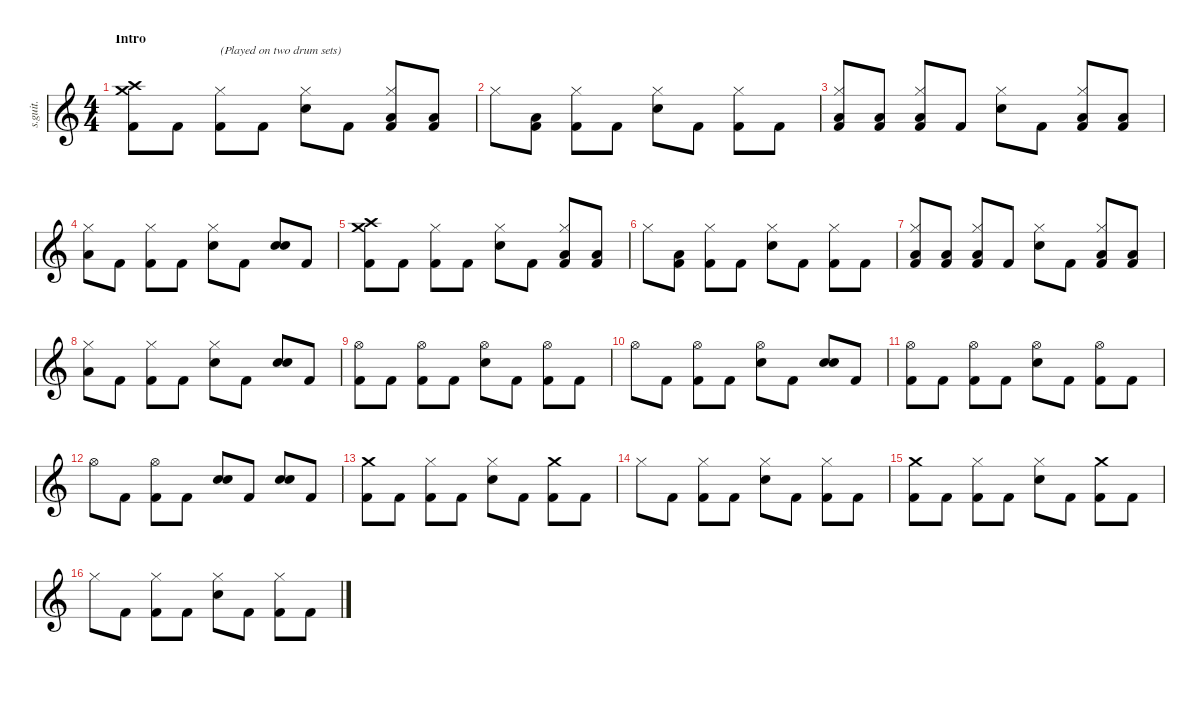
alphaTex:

\defaultSystemsLayout 4
\hideDynamics
\bracketExtendMode nobrackets
\track ("Taylor Hawkins" "s.guit.") {instrument percussion}
\staff {score}
\articulation defaults
\ts (4 4)
\beaming (8 2 2 2 2)
\section ("" "Intro")
\tempo (154 hide)
\clef g2
\ks c
("Crash high (hit)" "Crash medium (hit)" "Kick (hit) 2").8{lyrics (0 "") lyrics (1 "") lyrics (2 "") lyrics (3 "") lyrics (4 "") dy f} "Kick (hit) 2".8{lyrics (0 "") lyrics (1 "") lyrics (2 "") lyrics (3 "") lyrics (4 "")} ("Hi-Hat (closed)" "Kick (hit) 2").8{txt "(Played on two drum sets)" lyrics (0 "") lyrics (1 "") lyrics (2 "") lyrics (3 "") lyrics (4 "")} "Kick (hit) 2".8{lyrics (0 "") lyrics (1 "") lyrics (2 "") lyrics (3 "") lyrics (4 "")} ("Snare (hit) 2" "Hi-Hat (closed)").8{lyrics (0 "") lyrics (1 "") lyrics (2 "") lyrics (3 "") lyrics (4 "")} "Kick (hit) 2".8{lyrics (0 "") lyrics (1 "") lyrics (2 "") lyrics (3 "") lyrics (4 "")} ("Hi-Hat (closed)" "Low Floor Tom (hit)" "Kick (hit) 2").8{lyrics (0 "") lyrics (1 "") lyrics (2 "") lyrics (3 "") lyrics (4 "")} ("Low Floor Tom (hit)" "Kick (hit) 2").8{lyrics (0 "") lyrics (1 "") lyrics (2 "") lyrics (3 "") lyrics (4 "")} |
"Hi-Hat (closed)".8{lyrics (0 "") lyrics (1 "") lyrics (2 "") lyrics (3 "") lyrics (4 "")} ("Low Floor Tom (hit)" "Kick (hit) 2").8{lyrics (0 "") lyrics (1 "") lyrics (2 "") lyrics (3 "") lyrics (4 "")} ("Hi-Hat (closed)" "Kick (hit) 2").8{lyrics (0 "") lyrics (1 "") lyrics (2 "") lyrics (3 "") lyrics (4 "")} "Kick (hit) 2".8{lyrics (0 "") lyrics (1 "") lyrics (2 "") lyrics (3 "") lyrics (4 "")} ("Snare (hit) 2" "Hi-Hat (closed)").8{lyrics (0 "") lyrics (1 "") lyrics (2 "") lyrics (3 "") lyrics (4 "")} "Kick (hit) 2".8{lyrics (0 "") lyrics (1 "") lyrics (2 "") lyrics (3 "") lyrics (4 "")} ("Hi-Hat (closed)" "Kick (hit) 2").8{lyrics (0 "") lyrics (1 "") lyrics (2 "") lyrics (3 "") lyrics (4 "")} "Kick (hit) 2".8{lyrics (0 "") lyrics (1 "") lyrics (2 "") lyrics (3 "") lyrics (4 "")} |
("Hi-Hat (closed)" "Low Floor Tom (hit)" "Kick (hit) 2").8{lyrics (0 "") lyrics (1 "") lyrics (2 "") lyrics (3 "") lyrics (4 "")} ("Low Floor Tom (hit)" "Kick (hit) 2").8{lyrics (0 "") lyrics (1 "") lyrics (2 "") lyrics (3 "") lyrics (4 "")} ("Hi-Hat (closed)" "Low Floor Tom (hit)" "Kick (hit) 2").8{lyrics (0 "") lyrics (1 "") lyrics (2 "") lyrics (3 "") lyrics (4 "")} "Kick (hit) 2".8{lyrics (0 "") lyrics (1 "") lyrics (2 "") lyrics (3 "") lyrics (4 "")} ("Snare (hit) 2" "Hi-Hat (closed)").8{lyrics (0 "") lyrics (1 "") lyrics (2 "") lyrics (3 "") lyrics (4 "")} "Kick (hit) 2".8{lyrics (0 "") lyrics (1 "") lyrics (2 "") lyrics (3 "") lyrics (4 "")} ("Hi-Hat (closed)" "Low Floor Tom (hit)" "Kick (hit) 2").8{lyrics (0 "") lyrics (1 "") lyrics (2 "") lyrics (3 "") lyrics (4 "")} ("Low Floor Tom (hit)" "Kick (hit) 2").8{lyrics (0 "") lyrics (1 "") lyrics (2 "") lyrics (3 "") lyrics (4 "")} |
("Hi-Hat (closed)" "Low Floor Tom (hit)").8{lyrics (0 "") lyrics (1 "") lyrics (2 "") lyrics (3 "") lyrics (4 "")} "Kick (hit) 2".8{lyrics (0 "") lyrics (1 "") lyrics (2 "") lyrics (3 "") lyrics (4 "")} ("Hi-Hat (closed)" "Kick (hit) 2").8{lyrics (0 "") lyrics (1 "") lyrics (2 "") lyrics (3 "") lyrics (4 "")} "Kick (hit) 2".8{lyrics (0 "") lyrics (1 "") lyrics (2 "") lyrics (3 "") lyrics (4 "")} ("Snare (hit) 2" "Hi-Hat (closed)").8{lyrics (0 "") lyrics (1 "") lyrics (2 "") lyrics (3 "") lyrics (4 "")} "Kick (hit) 2".8{lyrics (0 "") lyrics (1 "") lyrics (2 "") lyrics (3 "") lyrics (4 "")} ("Snare (hit) 2" "Electric Snare (hit)").8{lyrics (0 "") lyrics (1 "") lyrics (2 "") lyrics (3 "") lyrics (4 "")} "Kick (hit) 2".8{lyrics (0 "") lyrics (1 "") lyrics (2 "") lyrics (3 "") lyrics (4 "")} |
("Crash high (hit)" "Crash medium (hit)" "Kick (hit) 2").8{lyrics (0 "") lyrics (1 "") lyrics (2 "") lyrics (3 "") lyrics (4 "")} "Kick (hit) 2".8{lyrics (0 "") lyrics (1 "") lyrics (2 "") lyrics (3 "") lyrics (4 "")} ("Hi-Hat (closed)" "Kick (hit) 2").8{lyrics (0 "") lyrics (1 "") lyrics (2 "") lyrics (3 "") lyrics (4 "")} "Kick (hit) 2".8{lyrics (0 "") lyrics (1 "") lyrics (2 "") lyrics (3 "") lyrics (4 "")} ("Snare (hit) 2" "Hi-Hat (closed)").8{lyrics (0 "") lyrics (1 "") lyrics (2 "") lyrics (3 "") lyrics (4 "")} "Kick (hit) 2".8{lyrics (0 "") lyrics (1 "") lyrics (2 "") lyrics (3 "") lyrics (4 "")} ("Hi-Hat (closed)" "Low Floor Tom (hit)" "Kick (hit) 2").8{lyrics (0 "") lyrics (1 "") lyrics (2 "") lyrics (3 "") lyrics (4 "")} ("Low Floor Tom (hit)" "Kick (hit) 2").8{lyrics (0 "") lyrics (1 "") lyrics (2 "") lyrics (3 "") lyrics (4 "")} |
"Hi-Hat (closed)".8{lyrics (0 "") lyrics (1 "") lyrics (2 "") lyrics (3 "") lyrics (4 "")} ("Low Floor Tom (hit)" "Kick (hit) 2").8{lyrics (0 "") lyrics (1 "") lyrics (2 "") lyrics (3 "") lyrics (4 "")} ("Hi-Hat (closed)" "Kick (hit) 2").8{lyrics (0 "") lyrics (1 "") lyrics (2 "") lyrics (3 "") lyrics (4 "")} "Kick (hit) 2".8{lyrics (0 "") lyrics (1 "") lyrics (2 "") lyrics (3 "") lyrics (4 "")} ("Snare (hit) 2" "Hi-Hat (closed)").8{lyrics (0 "") lyrics (1 "") lyrics (2 "") lyrics (3 "") lyrics (4 "")} "Kick (hit) 2".8{lyrics (0 "") lyrics (1 "") lyrics (2 "") lyrics (3 "") lyrics (4 "")} ("Hi-Hat (closed)" "Kick (hit) 2").8{lyrics (0 "") lyrics (1 "") lyrics (2 "") lyrics (3 "") lyrics (4 "")} "Kick (hit) 2".8{lyrics (0 "") lyrics (1 "") lyrics (2 "") lyrics (3 "") lyrics (4 "")} |
("Hi-Hat (closed)" "Low Floor Tom (hit)" "Kick (hit) 2").8{lyrics (0 "") lyrics (1 "") lyrics (2 "") lyrics (3 "") lyrics (4 "")} ("Low Floor Tom (hit)" "Kick (hit) 2").8{lyrics (0 "") lyrics (1 "") lyrics (2 "") lyrics (3 "") lyrics (4 "")} ("Hi-Hat (closed)" "Low Floor Tom (hit)" "Kick (hit) 2").8{lyrics (0 "") lyrics (1 "") lyrics (2 "") lyrics (3 "") lyrics (4 "")} "Kick (hit) 2".8{lyrics (0 "") lyrics (1 "") lyrics (2 "") lyrics (3 "") lyrics (4 "")} ("Snare (hit) 2" "Hi-Hat (closed)").8{lyrics (0 "") lyrics (1 "") lyrics (2 "") lyrics (3 "") lyrics (4 "")} "Kick (hit) 2".8{lyrics (0 "") lyrics (1 "") lyrics (2 "") lyrics (3 "") lyrics (4 "")} ("Hi-Hat (closed)" "Low Floor Tom (hit)" "Kick (hit) 2").8{lyrics (0 "") lyrics (1 "") lyrics (2 "") lyrics (3 "") lyrics (4 "")} ("Low Floor Tom (hit)" "Kick (hit) 2").8{lyrics (0 "") lyrics (1 "") lyrics (2 "") lyrics (3 "") lyrics (4 "")} |
("Hi-Hat (closed)" "Low Floor Tom (hit)").8{lyrics (0 "") lyrics (1 "") lyrics (2 "") lyrics (3 "") lyrics (4 "")} "Kick (hit) 2".8{lyrics (0 "") lyrics (1 "") lyrics (2 "") lyrics (3 "") lyrics (4 "")} ("Hi-Hat (closed)" "Kick (hit) 2").8{lyrics (0 "") lyrics (1 "") lyrics (2 "") lyrics (3 "") lyrics (4 "")} "Kick (hit) 2".8{lyrics (0 "") lyrics (1 "") lyrics (2 "") lyrics (3 "") lyrics (4 "")} ("Snare (hit) 2" "Hi-Hat (closed)").8{lyrics (0 "") lyrics (1 "") lyrics (2 "") lyrics (3 "") lyrics (4 "")} "Kick (hit) 2".8{lyrics (0 "") lyrics (1 "") lyrics (2 "") lyrics (3 "") lyrics (4 "")} ("Snare (hit) 2" "Electric Snare (hit)").8{lyrics (0 "") lyrics (1 "") lyrics (2 "") lyrics (3 "") lyrics (4 "")} "Kick (hit) 2".8{lyrics (0 "") lyrics (1 "") lyrics (2 "") lyrics (3 "") lyrics (4 "")} |
("Kick (hit) 2" "Hi-Hat (open)").8{lyrics (0 "") lyrics (1 "") lyrics (2 "") lyrics (3 "") lyrics (4 "")} "Kick (hit) 2".8{lyrics (0 "") lyrics (1 "") lyrics (2 "") lyrics (3 "") lyrics (4 "")} ("Kick (hit) 2" "Hi-Hat (open)").8{lyrics (0 "") lyrics (1 "") lyrics (2 "") lyrics (3 "") lyrics (4 "")} "Kick (hit) 2".8{lyrics (0 "") lyrics (1 "") lyrics (2 "") lyrics (3 "") lyrics (4 "")} ("Hi-Hat (open)" "Snare (hit) 2").8{lyrics (0 "") lyrics (1 "") lyrics (2 "") lyrics (3 "") lyrics (4 "")} "Kick (hit) 2".8{lyrics (0 "") lyrics (1 "") lyrics (2 "") lyrics (3 "") lyrics (4 "")} ("Kick (hit) 2" "Hi-Hat (open)").8{lyrics (0 "") lyrics (1 "") lyrics (2 "") lyrics (3 "") lyrics (4 "")} "Kick (hit) 2".8{lyrics (0 "") lyrics (1 "") lyrics (2 "") lyrics (3 "") lyrics (4 "")} |
"Hi-Hat (open)".8{lyrics (0 "") lyrics (1 "") lyrics (2 "") lyrics (3 "") lyrics (4 "")} "Kick (hit) 2".8{lyrics (0 "") lyrics (1 "") lyrics (2 "") lyrics (3 "") lyrics (4 "")} ("Kick (hit) 2" "Hi-Hat (open)").8{lyrics (0 "") lyrics (1 "") lyrics (2 "") lyrics (3 "") lyrics (4 "")} "Kick (hit) 2".8{lyrics (0 "") lyrics (1 "") lyrics (2 "") lyrics (3 "") lyrics (4 "")} ("Electric Snare (hit)" "Hi-Hat (open)").8{lyrics (0 "") lyrics (1 "") lyrics (2 "") lyrics (3 "") lyrics (4 "")} "Kick (hit) 2".8{lyrics (0 "") lyrics (1 "") lyrics (2 "") lyrics (3 "") lyrics (4 "")} ("Snare (hit) 2" "Electric Snare (hit)").8{lyrics (0 "") lyrics (1 "") lyrics (2 "") lyrics (3 "") lyrics (4 "")} "Kick (hit) 2".8{lyrics (0 "") lyrics (1 "") lyrics (2 "") lyrics (3 "") lyrics (4 "")} |
("Kick (hit) 2" "Hi-Hat (open)").8{lyrics (0 "") lyrics (1 "") lyrics (2 "") lyrics (3 "") lyrics (4 "")} "Kick (hit) 2".8{lyrics (0 "") lyrics (1 "") lyrics (2 "") lyrics (3 "") lyrics (4 "")} ("Kick (hit) 2" "Hi-Hat (open)").8{lyrics (0 "") lyrics (1 "") lyrics (2 "") lyrics (3 "") lyrics (4 "")} "Kick (hit) 2".8{lyrics (0 "") lyrics (1 "") lyrics (2 "") lyrics (3 "") lyrics (4 "")} ("Hi-Hat (open)" "Snare (hit) 2").8{lyrics (0 "") lyrics (1 "") lyrics (2 "") lyrics (3 "") lyrics (4 "")} "Kick (hit) 2".8{lyrics (0 "") lyrics (1 "") lyrics (2 "") lyrics (3 "") lyrics (4 "")} ("Kick (hit) 2" "Hi-Hat (open)").8{lyrics (0 "") lyrics (1 "") lyrics (2 "") lyrics (3 "") lyrics (4 "")} "Kick (hit) 2".8{lyrics (0 "") lyrics (1 "") lyrics (2 "") lyrics (3 "") lyrics (4 "")} |
"Hi-Hat (open)".8{lyrics (0 "") lyrics (1 "") lyrics (2 "") lyrics (3 "") lyrics (4 "")} "Kick (hit) 2".8{lyrics (0 "") lyrics (1 "") lyrics (2 "") lyrics (3 "") lyrics (4 "")} ("Kick (hit) 2" "Hi-Hat (open)").8{lyrics (0 "") lyrics (1 "") lyrics (2 "") lyrics (3 "") lyrics (4 "")} "Kick (hit) 2".8{lyrics (0 "") lyrics (1 "") lyrics (2 "") lyrics (3 "") lyrics (4 "")} ("Snare (hit) 2" "Electric Snare (hit)").8{lyrics (0 "") lyrics (1 "") lyrics (2 "") lyrics (3 "") lyrics (4 "")} "Kick (hit) 2".8{lyrics (0 "") lyrics (1 "") lyrics (2 "") lyrics (3 "") lyrics (4 "")} ("Snare (hit) 2" "Electric Snare (hit)").8{lyrics (0 "") lyrics (1 "") lyrics (2 "") lyrics (3 "") lyrics (4 "")} "Kick (hit) 2".8{lyrics (0 "") lyrics (1 "") lyrics (2 "") lyrics (3 "") lyrics (4 "")} |
("Crash medium (hit)" "Kick (hit) 2").8{lyrics (0 "") lyrics (1 "") lyrics (2 "") lyrics (3 "") lyrics (4 "")} "Kick (hit) 2".8{lyrics (0 "") lyrics (1 "") lyrics (2 "") lyrics (3 "") lyrics (4 "")} ("Hi-Hat (closed)" "Kick (hit) 2").8{lyrics (0 "") lyrics (1 "") lyrics (2 "") lyrics (3 "") lyrics (4 "")} "Kick (hit) 2".8{lyrics (0 "") lyrics (1 "") lyrics (2 "") lyrics (3 "") lyrics (4 "")} ("Hi-Hat (closed)" "Electric Snare (hit)").8{lyrics (0 "") lyrics (1 "") lyrics (2 "") lyrics (3 "") lyrics (4 "")} "Kick (hit) 2".8{lyrics (0 "") lyrics (1 "") lyrics (2 "") lyrics (3 "") lyrics (4 "")} ("Crash medium (hit)" "Kick (hit) 2").8{lyrics (0 "") lyrics (1 "") lyrics (2 "") lyrics (3 "") lyrics (4 "")} "Kick (hit) 2".8{lyrics (0 "") lyrics (1 "") lyrics (2 "") lyrics (3 "") lyrics (4 "")} |
"Hi-Hat (closed)".8{lyrics (0 "") lyrics (1 "") lyrics (2 "") lyrics (3 "") lyrics (4 "")} "Kick (hit) 2".8{lyrics (0 "") lyrics (1 "") lyrics (2 "") lyrics (3 "") lyrics (4 "")} ("Hi-Hat (closed)" "Kick (hit) 2").8{lyrics (0 "") lyrics (1 "") lyrics (2 "") lyrics (3 "") lyrics (4 "")} "Kick (hit) 2".8{lyrics (0 "") lyrics (1 "") lyrics (2 "") lyrics (3 "") lyrics (4 "")} ("Hi-Hat (closed)" "Electric Snare (hit)").8{lyrics (0 "") lyrics (1 "") lyrics (2 "") lyrics (3 "") lyrics (4 "")} "Kick (hit) 2".8{lyrics (0 "") lyrics (1 "") lyrics (2 "") lyrics (3 "") lyrics (4 "")} ("Hi-Hat (closed)" "Kick (hit) 2").8{lyrics (0 "") lyrics (1 "") lyrics (2 "") lyrics (3 "") lyrics (4 "")} "Kick (hit) 2".8{lyrics (0 "") lyrics (1 "") lyrics (2 "") lyrics (3 "") lyrics (4 "")} |
("Crash medium (hit)" "Kick (hit) 2").8{lyrics (0 "") lyrics (1 "") lyrics (2 "") lyrics (3 "") lyrics (4 "")} "Kick (hit) 2".8{lyrics (0 "") lyrics (1 "") lyrics (2 "") lyrics (3 "") lyrics (4 "")} ("Hi-Hat (closed)" "Kick (hit) 2").8{lyrics (0 "") lyrics (1 "") lyrics (2 "") lyrics (3 "") lyrics (4 "")} "Kick (hit) 2".8{lyrics (0 "") lyrics (1 "") lyrics (2 "") lyrics (3 "") lyrics (4 "")} ("Hi-Hat (closed)" "Electric Snare (hit)").8{lyrics (0 "") lyrics (1 "") lyrics (2 "") lyrics (3 "") lyrics (4 "")} "Kick (hit) 2".8{lyrics (0 "") lyrics (1 "") lyrics (2 "") lyrics (3 "") lyrics (4 "")} ("Crash medium (hit)" "Kick (hit) 2").8{lyrics (0 "") lyrics (1 "") lyrics (2 "") lyrics (3 "") lyrics (4 "")} "Kick (hit) 2".8{lyrics (0 "") lyrics (1 "") lyrics (2 "") lyrics (3 "") lyrics (4 "")} |
"Hi-Hat (closed)".8{lyrics (0 "") lyrics (1 "") lyrics (2 "") lyrics (3 "") lyrics (4 "")} "Kick (hit) 2".8{lyrics (0 "") lyrics (1 "") lyrics (2 "") lyrics (3 "") lyrics (4 "")} ("Hi-Hat (closed)" "Kick (hit) 2").8{lyrics (0 "") lyrics (1 "") lyrics (2 "") lyrics (3 "") lyrics (4 "")} "Kick (hit) 2".8{lyrics (0 "") lyrics (1 "") lyrics (2 "") lyrics (3 "") lyrics (4 "")} ("Hi-Hat (closed)" "Electric Snare (hit)").8{lyrics (0 "") lyrics (1 "") lyrics (2 "") lyrics (3 "") lyrics (4 "")} "Kick (hit) 2".8{lyrics (0 "") lyrics (1 "") lyrics (2 "") lyrics (3 "") lyrics (4 "")} ("Hi-Hat (closed)" "Kick (hit) 2").8{lyrics (0 "") lyrics (1 "") lyrics (2 "") lyrics (3 "") lyrics (4 "")} "Kick (hit) 2".8{lyrics (0 "") lyrics (1 "") lyrics (2 "") lyrics (3 "") lyrics (4 "")}
